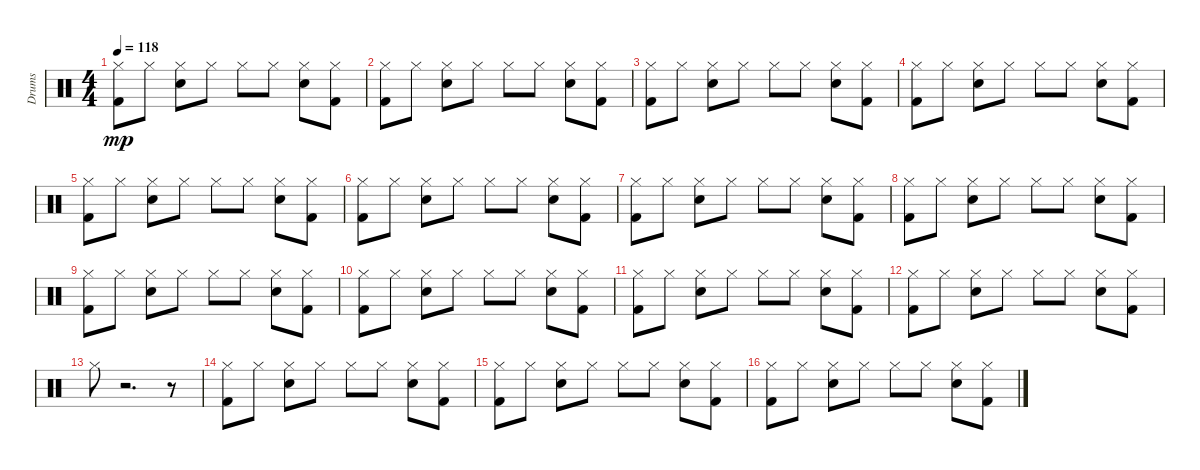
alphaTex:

\track ("Drums" "Drums") {instrument percussion}
\staff {score}
\articulation defaults
\ts (4 4)
\tempo 118
\clef neutral
\ks c
("Hi-Hat (closed)" "Kick (hit) 2").8{dy mp} "Hi-Hat (closed)".8 ("Hi-Hat (closed)" "Snare (hit) 2").8 "Hi-Hat (closed)".8 "Hi-Hat (closed)".8 "Hi-Hat (closed)".8 ("Hi-Hat (closed)" "Snare (hit) 2").8 ("Hi-Hat (closed)" "Kick (hit) 2").8 |
("Hi-Hat (closed)" "Kick (hit) 2").8 "Hi-Hat (closed)".8 ("Hi-Hat (closed)" "Snare (hit) 2").8 "Hi-Hat (closed)".8 "Hi-Hat (closed)".8 "Hi-Hat (closed)".8 ("Hi-Hat (closed)" "Snare (hit) 2").8 ("Hi-Hat (closed)" "Kick (hit) 2").8 |
("Hi-Hat (closed)" "Kick (hit) 2").8 "Hi-Hat (closed)".8 ("Hi-Hat (closed)" "Snare (hit) 2").8 "Hi-Hat (closed)".8 "Hi-Hat (closed)".8 "Hi-Hat (closed)".8 ("Hi-Hat (closed)" "Snare (hit) 2").8 ("Hi-Hat (closed)" "Kick (hit) 2").8 |
("Hi-Hat (closed)" "Kick (hit) 2").8 "Hi-Hat (closed)".8 ("Hi-Hat (closed)" "Snare (hit) 2").8 "Hi-Hat (closed)".8 "Hi-Hat (closed)".8 "Hi-Hat (closed)".8 ("Hi-Hat (closed)" "Snare (hit) 2").8 ("Hi-Hat (closed)" "Kick (hit) 2").8 |
("Hi-Hat (closed)" "Kick (hit) 2").8 "Hi-Hat (closed)".8 ("Hi-Hat (closed)" "Snare (hit) 2").8 "Hi-Hat (closed)".8 "Hi-Hat (closed)".8 "Hi-Hat (closed)".8 ("Hi-Hat (closed)" "Snare (hit) 2").8 ("Hi-Hat (closed)" "Kick (hit) 2").8 |
("Hi-Hat (closed)" "Kick (hit) 2").8 "Hi-Hat (closed)".8 ("Hi-Hat (closed)" "Snare (hit) 2").8 "Hi-Hat (closed)".8 "Hi-Hat (closed)".8 "Hi-Hat (closed)".8 ("Hi-Hat (closed)" "Snare (hit) 2").8 ("Hi-Hat (closed)" "Kick (hit) 2").8 |
("Hi-Hat (closed)" "Kick (hit) 2").8 "Hi-Hat (closed)".8 ("Hi-Hat (closed)" "Snare (hit) 2").8 "Hi-Hat (closed)".8 "Hi-Hat (closed)".8 "Hi-Hat (closed)".8 ("Hi-Hat (closed)" "Snare (hit) 2").8 ("Hi-Hat (closed)" "Kick (hit) 2").8 |
("Hi-Hat (closed)" "Kick (hit) 2").8 "Hi-Hat (closed)".8 ("Hi-Hat (closed)" "Snare (hit) 2").8 "Hi-Hat (closed)".8 "Hi-Hat (closed)".8 "Hi-Hat (closed)".8 ("Hi-Hat (closed)" "Snare (hit) 2").8 ("Hi-Hat (closed)" "Kick (hit) 2").8 |
("Hi-Hat (closed)" "Kick (hit) 2").8 "Hi-Hat (closed)".8 ("Hi-Hat (closed)" "Snare (hit) 2").8 "Hi-Hat (closed)".8 "Hi-Hat (closed)".8 "Hi-Hat (closed)".8 ("Hi-Hat (closed)" "Snare (hit) 2").8 ("Hi-Hat (closed)" "Kick (hit) 2").8 |
("Hi-Hat (closed)" "Kick (hit) 2").8 "Hi-Hat (closed)".8 ("Hi-Hat (closed)" "Snare (hit) 2").8 "Hi-Hat (closed)".8 "Hi-Hat (closed)".8 "Hi-Hat (closed)".8 ("Hi-Hat (closed)" "Snare (hit) 2").8 ("Hi-Hat (closed)" "Kick (hit) 2").8 |
("Hi-Hat (closed)" "Kick (hit) 2").8 "Hi-Hat (closed)".8 ("Hi-Hat (closed)" "Snare (hit) 2").8 "Hi-Hat (closed)".8 "Hi-Hat (closed)".8 "Hi-Hat (closed)".8 ("Hi-Hat (closed)" "Snare (hit) 2").8 ("Hi-Hat (closed)" "Kick (hit) 2").8 |
("Hi-Hat (closed)" "Kick (hit) 2").8 "Hi-Hat (closed)".8 ("Hi-Hat (closed)" "Snare (hit) 2").8 "Hi-Hat (closed)".8 "Hi-Hat (closed)".8 "Hi-Hat (closed)".8 ("Hi-Hat (closed)" "Snare (hit) 2").8 ("Hi-Hat (closed)" "Kick (hit) 2").8 |
"Hi-Hat (closed)".8 r.2{d} r.8 |
("Hi-Hat (closed)" "Kick (hit) 2").8 "Hi-Hat (closed)".8 ("Hi-Hat (closed)" "Snare (hit) 2").8 "Hi-Hat (closed)".8 "Hi-Hat (closed)".8 "Hi-Hat (closed)".8 ("Hi-Hat (closed)" "Snare (hit) 2").8 ("Hi-Hat (closed)" "Kick (hit) 2").8 |
("Hi-Hat (closed)" "Kick (hit) 2").8 "Hi-Hat (closed)".8 ("Hi-Hat (closed)" "Snare (hit) 2").8 "Hi-Hat (closed)".8 "Hi-Hat (closed)".8 "Hi-Hat (closed)".8 ("Hi-Hat (closed)" "Snare (hit) 2").8 ("Hi-Hat (closed)" "Kick (hit) 2").8 |
("Hi-Hat (closed)" "Kick (hit) 2").8 "Hi-Hat (closed)".8 ("Hi-Hat (closed)" "Snare (hit) 2").8 "Hi-Hat (closed)".8 "Hi-Hat (closed)".8 "Hi-Hat (closed)".8 ("Hi-Hat (closed)" "Snare (hit) 2").8 ("Hi-Hat (closed)" "Kick (hit) 2").8
